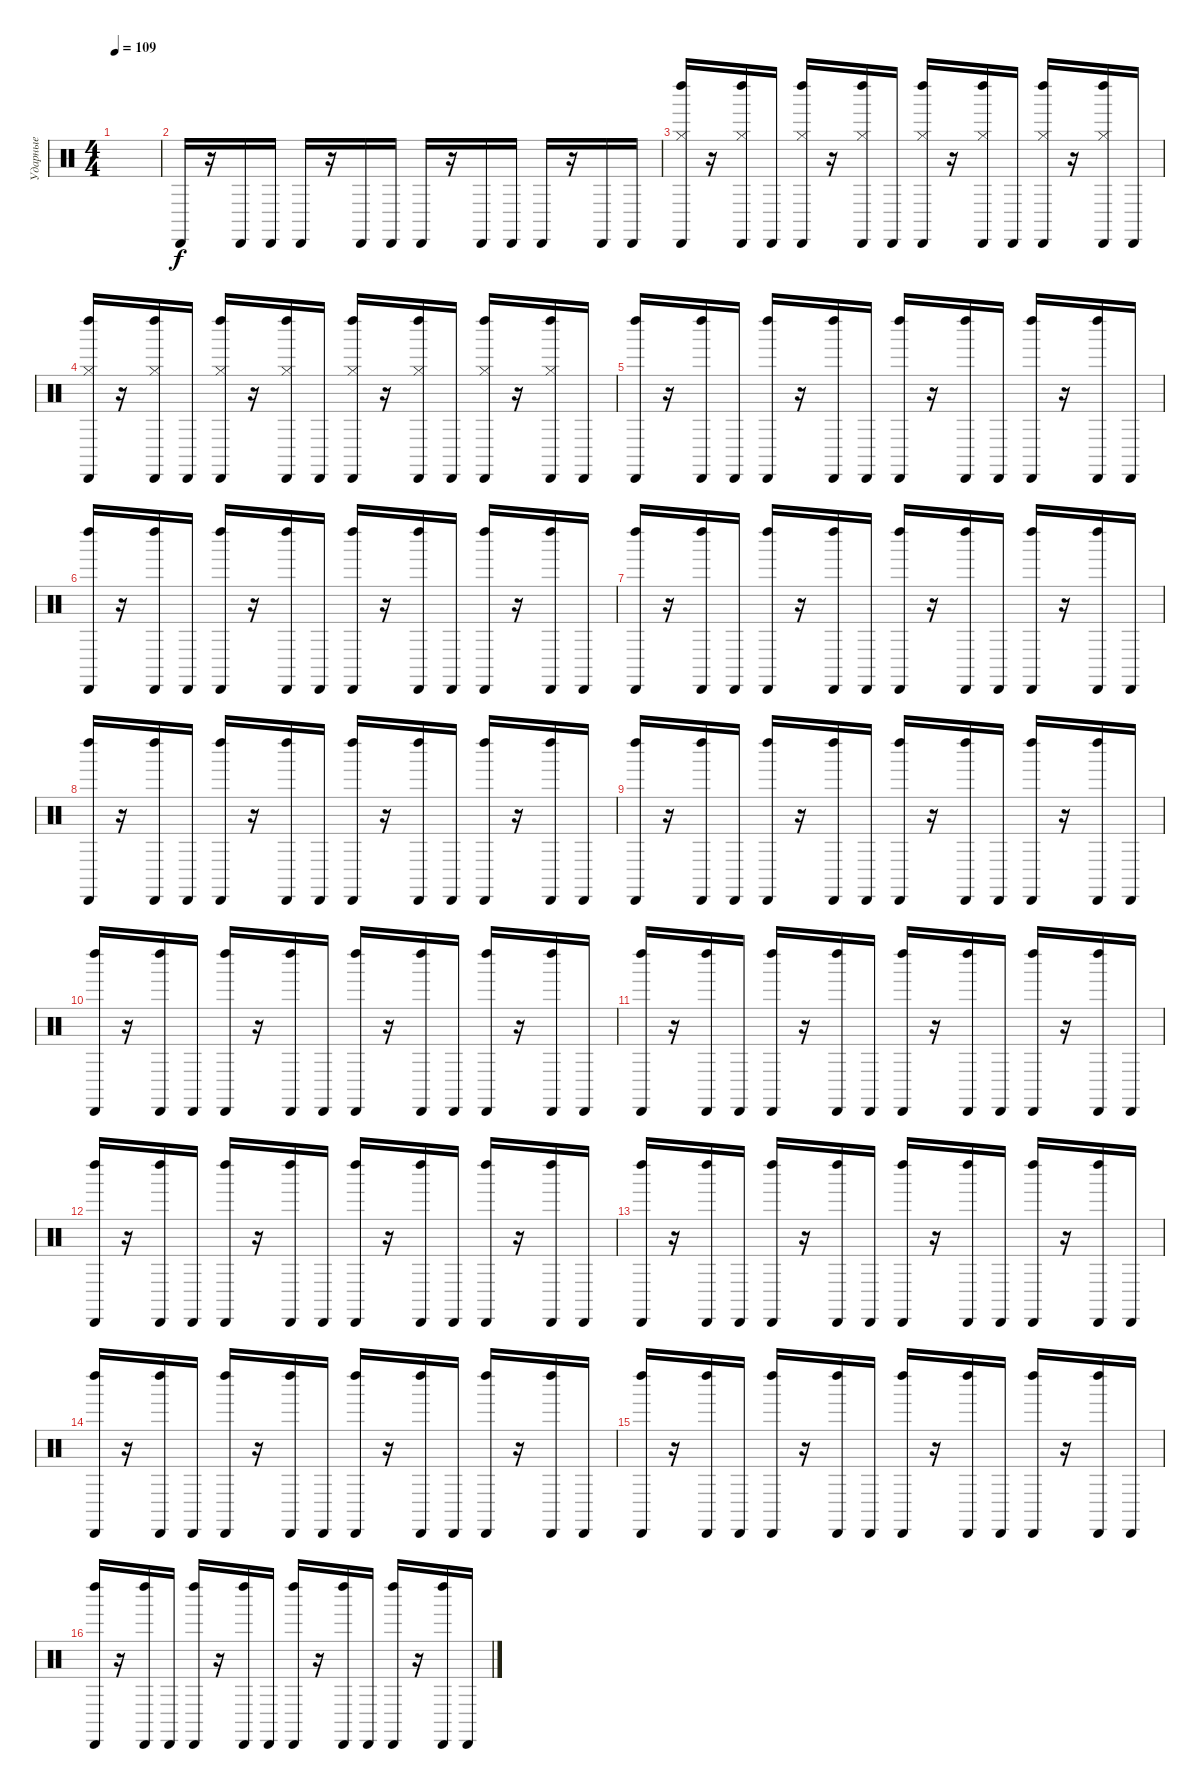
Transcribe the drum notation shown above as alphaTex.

\track ("Ударные" "Ударные") {instrument percussion}
\staff {score}
\articulation defaults
\ts (4 4)
\tempo 109
\clef neutral
\ks c
|
"Cabasa (hit)".16 r.16 "Cabasa (hit)".16 "Cabasa (hit)".16 "Cabasa (hit)".16 r.16 "Cabasa (hit)".16 "Cabasa (hit)".16 "Cabasa (hit)".16 r.16 "Cabasa (hit)".16 "Cabasa (hit)".16 "Cabasa (hit)".16 r.16 "Cabasa (hit)".16 "Cabasa (hit)".16 |
("Left Maraca (hit)" "Cabasa (hit)" "Hi-Hat (closed)").16 r.16 ("Left Maraca (hit)" "Cabasa (hit)" "Hi-Hat (closed)").16 "Cabasa (hit)".16 ("Left Maraca (hit)" "Cabasa (hit)" "Hi-Hat (closed)").16 r.16 ("Left Maraca (hit)" "Cabasa (hit)" "Hi-Hat (closed)").16 "Cabasa (hit)".16 ("Left Maraca (hit)" "Cabasa (hit)" "Hi-Hat (closed)").16 r.16 ("Left Maraca (hit)" "Cabasa (hit)" "Hi-Hat (closed)").16 "Cabasa (hit)".16 ("Left Maraca (hit)" "Cabasa (hit)" "Hi-Hat (closed)").16 r.16 ("Left Maraca (hit)" "Cabasa (hit)" "Hi-Hat (closed)").16 "Cabasa (hit)".16 |
("Left Maraca (hit)" "Cabasa (hit)" "Hi-Hat (closed)").16 r.16 ("Left Maraca (hit)" "Cabasa (hit)" "Hi-Hat (closed)").16 "Cabasa (hit)".16 ("Left Maraca (hit)" "Cabasa (hit)" "Hi-Hat (closed)").16 r.16 ("Left Maraca (hit)" "Cabasa (hit)" "Hi-Hat (closed)").16 "Cabasa (hit)".16 ("Left Maraca (hit)" "Cabasa (hit)" "Hi-Hat (closed)").16 r.16 ("Left Maraca (hit)" "Cabasa (hit)" "Hi-Hat (closed)").16 "Cabasa (hit)".16 ("Left Maraca (hit)" "Cabasa (hit)" "Hi-Hat (closed)").16 r.16 ("Left Maraca (hit)" "Cabasa (hit)" "Hi-Hat (closed)").16 "Cabasa (hit)".16 |
("Left Maraca (hit)" "Cabasa (hit)").16 r.16 ("Left Maraca (hit)" "Cabasa (hit)").16 "Cabasa (hit)".16 ("Left Maraca (hit)" "Cabasa (hit)").16 r.16 ("Left Maraca (hit)" "Cabasa (hit)").16 "Cabasa (hit)".16 ("Left Maraca (hit)" "Cabasa (hit)").16 r.16 ("Left Maraca (hit)" "Cabasa (hit)").16 "Cabasa (hit)".16 ("Left Maraca (hit)" "Cabasa (hit)").16 r.16 ("Left Maraca (hit)" "Cabasa (hit)").16 "Cabasa (hit)".16 |
("Left Maraca (hit)" "Cabasa (hit)").16 r.16 ("Left Maraca (hit)" "Cabasa (hit)").16 "Cabasa (hit)".16 ("Left Maraca (hit)" "Cabasa (hit)").16 r.16 ("Left Maraca (hit)" "Cabasa (hit)").16 "Cabasa (hit)".16 ("Left Maraca (hit)" "Cabasa (hit)").16 r.16 ("Left Maraca (hit)" "Cabasa (hit)").16 "Cabasa (hit)".16 ("Left Maraca (hit)" "Cabasa (hit)").16 r.16 ("Left Maraca (hit)" "Cabasa (hit)").16 "Cabasa (hit)".16 |
("Left Maraca (hit)" "Cabasa (hit)").16 r.16 ("Left Maraca (hit)" "Cabasa (hit)").16 "Cabasa (hit)".16 ("Left Maraca (hit)" "Cabasa (hit)").16 r.16 ("Left Maraca (hit)" "Cabasa (hit)").16 "Cabasa (hit)".16 ("Left Maraca (hit)" "Cabasa (hit)").16 r.16 ("Left Maraca (hit)" "Cabasa (hit)").16 "Cabasa (hit)".16 ("Left Maraca (hit)" "Cabasa (hit)").16 r.16 ("Left Maraca (hit)" "Cabasa (hit)").16 "Cabasa (hit)".16 |
("Left Maraca (hit)" "Cabasa (hit)").16 r.16 ("Left Maraca (hit)" "Cabasa (hit)").16 "Cabasa (hit)".16 ("Left Maraca (hit)" "Cabasa (hit)").16 r.16 ("Left Maraca (hit)" "Cabasa (hit)").16 "Cabasa (hit)".16 ("Left Maraca (hit)" "Cabasa (hit)").16 r.16 ("Left Maraca (hit)" "Cabasa (hit)").16 "Cabasa (hit)".16 ("Left Maraca (hit)" "Cabasa (hit)").16 r.16 ("Left Maraca (hit)" "Cabasa (hit)").16 "Cabasa (hit)".16 |
("Left Maraca (hit)" "Cabasa (hit)").16 r.16 ("Left Maraca (hit)" "Cabasa (hit)").16 "Cabasa (hit)".16 ("Left Maraca (hit)" "Cabasa (hit)").16 r.16 ("Left Maraca (hit)" "Cabasa (hit)").16 "Cabasa (hit)".16 ("Left Maraca (hit)" "Cabasa (hit)").16 r.16 ("Left Maraca (hit)" "Cabasa (hit)").16 "Cabasa (hit)".16 ("Left Maraca (hit)" "Cabasa (hit)").16 r.16 ("Left Maraca (hit)" "Cabasa (hit)").16 "Cabasa (hit)".16 |
("Left Maraca (hit)" "Cabasa (hit)").16 r.16 ("Left Maraca (hit)" "Cabasa (hit)").16 "Cabasa (hit)".16 ("Left Maraca (hit)" "Cabasa (hit)").16 r.16 ("Left Maraca (hit)" "Cabasa (hit)").16 "Cabasa (hit)".16 ("Left Maraca (hit)" "Cabasa (hit)").16 r.16 ("Left Maraca (hit)" "Cabasa (hit)").16 "Cabasa (hit)".16 ("Left Maraca (hit)" "Cabasa (hit)").16 r.16 ("Left Maraca (hit)" "Cabasa (hit)").16 "Cabasa (hit)".16 |
("Left Maraca (hit)" "Cabasa (hit)").16 r.16 ("Left Maraca (hit)" "Cabasa (hit)").16 "Cabasa (hit)".16 ("Left Maraca (hit)" "Cabasa (hit)").16 r.16 ("Left Maraca (hit)" "Cabasa (hit)").16 "Cabasa (hit)".16 ("Left Maraca (hit)" "Cabasa (hit)").16 r.16 ("Left Maraca (hit)" "Cabasa (hit)").16 "Cabasa (hit)".16 ("Left Maraca (hit)" "Cabasa (hit)").16 r.16 ("Left Maraca (hit)" "Cabasa (hit)").16 "Cabasa (hit)".16 |
("Left Maraca (hit)" "Cabasa (hit)").16 r.16 ("Left Maraca (hit)" "Cabasa (hit)").16 "Cabasa (hit)".16 ("Left Maraca (hit)" "Cabasa (hit)").16 r.16 ("Left Maraca (hit)" "Cabasa (hit)").16 "Cabasa (hit)".16 ("Left Maraca (hit)" "Cabasa (hit)").16 r.16 ("Left Maraca (hit)" "Cabasa (hit)").16 "Cabasa (hit)".16 ("Left Maraca (hit)" "Cabasa (hit)").16 r.16 ("Left Maraca (hit)" "Cabasa (hit)").16 "Cabasa (hit)".16 |
("Left Maraca (hit)" "Cabasa (hit)").16 r.16 ("Left Maraca (hit)" "Cabasa (hit)").16 "Cabasa (hit)".16 ("Left Maraca (hit)" "Cabasa (hit)").16 r.16 ("Left Maraca (hit)" "Cabasa (hit)").16 "Cabasa (hit)".16 ("Left Maraca (hit)" "Cabasa (hit)").16 r.16 ("Left Maraca (hit)" "Cabasa (hit)").16 "Cabasa (hit)".16 ("Left Maraca (hit)" "Cabasa (hit)").16 r.16 ("Left Maraca (hit)" "Cabasa (hit)").16 "Cabasa (hit)".16 |
("Left Maraca (hit)" "Cabasa (hit)").16 r.16 ("Left Maraca (hit)" "Cabasa (hit)").16 "Cabasa (hit)".16 ("Left Maraca (hit)" "Cabasa (hit)").16 r.16 ("Left Maraca (hit)" "Cabasa (hit)").16 "Cabasa (hit)".16 ("Left Maraca (hit)" "Cabasa (hit)").16 r.16 ("Left Maraca (hit)" "Cabasa (hit)").16 "Cabasa (hit)".16 ("Left Maraca (hit)" "Cabasa (hit)").16 r.16 ("Left Maraca (hit)" "Cabasa (hit)").16 "Cabasa (hit)".16 |
("Left Maraca (hit)" "Cabasa (hit)").16 r.16 ("Left Maraca (hit)" "Cabasa (hit)").16 "Cabasa (hit)".16 ("Left Maraca (hit)" "Cabasa (hit)").16 r.16 ("Left Maraca (hit)" "Cabasa (hit)").16 "Cabasa (hit)".16 ("Left Maraca (hit)" "Cabasa (hit)").16 r.16 ("Left Maraca (hit)" "Cabasa (hit)").16 "Cabasa (hit)".16 ("Left Maraca (hit)" "Cabasa (hit)").16 r.16 ("Left Maraca (hit)" "Cabasa (hit)").16 "Cabasa (hit)".16 |
("Left Maraca (hit)" "Cabasa (hit)").16 r.16 ("Left Maraca (hit)" "Cabasa (hit)").16 "Cabasa (hit)".16 ("Left Maraca (hit)" "Cabasa (hit)").16 r.16 ("Left Maraca (hit)" "Cabasa (hit)").16 "Cabasa (hit)".16 ("Left Maraca (hit)" "Cabasa (hit)").16 r.16 ("Left Maraca (hit)" "Cabasa (hit)").16 "Cabasa (hit)".16 ("Left Maraca (hit)" "Cabasa (hit)").16 r.16 ("Left Maraca (hit)" "Cabasa (hit)").16 "Cabasa (hit)".16
